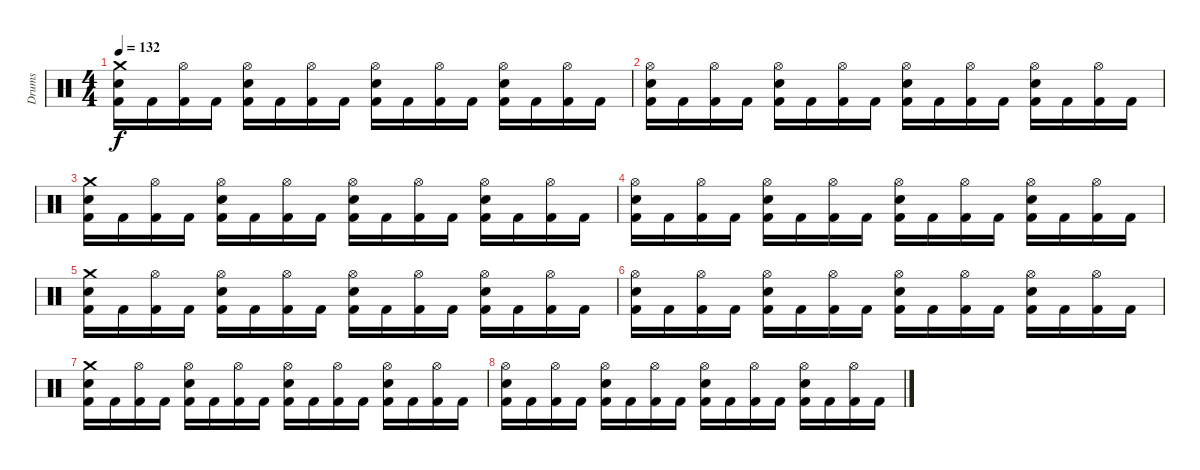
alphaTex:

\track ("Drums" "Drums") {instrument percussion}
\staff {score}
\articulation defaults
\ts (4 4)
\tempo 132
\clef neutral
\ks c
("Crash medium (hit)" "Electric Snare (hit)" "Kick (hit) 2").16{dy f} "Kick (hit) 2".16 ("Hi-Hat (open)" "Kick (hit) 2").16 "Kick (hit) 2".16 ("Hi-Hat (open)" "Electric Snare (hit)" "Kick (hit) 2").16 "Kick (hit) 2".16 ("Hi-Hat (open)" "Kick (hit) 2").16 "Kick (hit) 2".16 ("Hi-Hat (open)" "Electric Snare (hit)" "Kick (hit) 2").16 "Kick (hit) 2".16 ("Hi-Hat (open)" "Kick (hit) 2").16 "Kick (hit) 2".16 ("Hi-Hat (open)" "Electric Snare (hit)" "Kick (hit) 2").16 "Kick (hit) 2".16 ("Hi-Hat (open)" "Kick (hit) 2").16 "Kick (hit) 2".16 |
("Hi-Hat (open)" "Electric Snare (hit)" "Kick (hit) 2").16 "Kick (hit) 2".16 ("Hi-Hat (open)" "Kick (hit) 2").16 "Kick (hit) 2".16 ("Hi-Hat (open)" "Electric Snare (hit)" "Kick (hit) 2").16 "Kick (hit) 2".16 ("Hi-Hat (open)" "Kick (hit) 2").16 "Kick (hit) 2".16 ("Hi-Hat (open)" "Electric Snare (hit)" "Kick (hit) 2").16 "Kick (hit) 2".16 ("Hi-Hat (open)" "Kick (hit) 2").16 "Kick (hit) 2".16 ("Hi-Hat (open)" "Electric Snare (hit)" "Kick (hit) 2").16 "Kick (hit) 2".16 ("Hi-Hat (open)" "Kick (hit) 2").16 "Kick (hit) 2".16 |
("Crash medium (hit)" "Electric Snare (hit)" "Kick (hit) 2").16 "Kick (hit) 2".16 ("Hi-Hat (open)" "Kick (hit) 2").16 "Kick (hit) 2".16 ("Hi-Hat (open)" "Electric Snare (hit)" "Kick (hit) 2").16 "Kick (hit) 2".16 ("Hi-Hat (open)" "Kick (hit) 2").16 "Kick (hit) 2".16 ("Hi-Hat (open)" "Electric Snare (hit)" "Kick (hit) 2").16 "Kick (hit) 2".16 ("Hi-Hat (open)" "Kick (hit) 2").16 "Kick (hit) 2".16 ("Hi-Hat (open)" "Electric Snare (hit)" "Kick (hit) 2").16 "Kick (hit) 2".16 ("Hi-Hat (open)" "Kick (hit) 2").16 "Kick (hit) 2".16 |
("Hi-Hat (open)" "Electric Snare (hit)" "Kick (hit) 2").16{volume 11} "Kick (hit) 2".16 ("Hi-Hat (open)" "Kick (hit) 2").16 "Kick (hit) 2".16 ("Hi-Hat (open)" "Electric Snare (hit)" "Kick (hit) 2").16 "Kick (hit) 2".16 ("Hi-Hat (open)" "Kick (hit) 2").16 "Kick (hit) 2".16 ("Hi-Hat (open)" "Electric Snare (hit)" "Kick (hit) 2").16 "Kick (hit) 2".16 ("Hi-Hat (open)" "Kick (hit) 2").16 "Kick (hit) 2".16 ("Hi-Hat (open)" "Electric Snare (hit)" "Kick (hit) 2").16 "Kick (hit) 2".16 ("Hi-Hat (open)" "Kick (hit) 2").16 "Kick (hit) 2".16 |
("Crash medium (hit)" "Electric Snare (hit)" "Kick (hit) 2").16{volume 9} "Kick (hit) 2".16 ("Hi-Hat (open)" "Kick (hit) 2").16 "Kick (hit) 2".16 ("Hi-Hat (open)" "Electric Snare (hit)" "Kick (hit) 2").16 "Kick (hit) 2".16 ("Hi-Hat (open)" "Kick (hit) 2").16 "Kick (hit) 2".16 ("Hi-Hat (open)" "Electric Snare (hit)" "Kick (hit) 2").16 "Kick (hit) 2".16 ("Hi-Hat (open)" "Kick (hit) 2").16 "Kick (hit) 2".16 ("Hi-Hat (open)" "Electric Snare (hit)" "Kick (hit) 2").16 "Kick (hit) 2".16 ("Hi-Hat (open)" "Kick (hit) 2").16 "Kick (hit) 2".16 |
("Hi-Hat (open)" "Electric Snare (hit)" "Kick (hit) 2").16{volume 5} "Kick (hit) 2".16 ("Hi-Hat (open)" "Kick (hit) 2").16 "Kick (hit) 2".16 ("Hi-Hat (open)" "Electric Snare (hit)" "Kick (hit) 2").16 "Kick (hit) 2".16 ("Hi-Hat (open)" "Kick (hit) 2").16 "Kick (hit) 2".16 ("Hi-Hat (open)" "Electric Snare (hit)" "Kick (hit) 2").16 "Kick (hit) 2".16 ("Hi-Hat (open)" "Kick (hit) 2").16 "Kick (hit) 2".16 ("Hi-Hat (open)" "Electric Snare (hit)" "Kick (hit) 2").16 "Kick (hit) 2".16 ("Hi-Hat (open)" "Kick (hit) 2").16 "Kick (hit) 2".16 |
("Crash medium (hit)" "Electric Snare (hit)" "Kick (hit) 2").16{volume 0} "Kick (hit) 2".16 ("Hi-Hat (open)" "Kick (hit) 2").16 "Kick (hit) 2".16 ("Hi-Hat (open)" "Electric Snare (hit)" "Kick (hit) 2").16 "Kick (hit) 2".16 ("Hi-Hat (open)" "Kick (hit) 2").16 "Kick (hit) 2".16 ("Hi-Hat (open)" "Electric Snare (hit)" "Kick (hit) 2").16 "Kick (hit) 2".16 ("Hi-Hat (open)" "Kick (hit) 2").16 "Kick (hit) 2".16 ("Hi-Hat (open)" "Electric Snare (hit)" "Kick (hit) 2").16 "Kick (hit) 2".16 ("Hi-Hat (open)" "Kick (hit) 2").16 "Kick (hit) 2".16 |
("Hi-Hat (open)" "Electric Snare (hit)" "Kick (hit) 2").16 "Kick (hit) 2".16 ("Hi-Hat (open)" "Kick (hit) 2").16 "Kick (hit) 2".16 ("Hi-Hat (open)" "Electric Snare (hit)" "Kick (hit) 2").16 "Kick (hit) 2".16 ("Hi-Hat (open)" "Kick (hit) 2").16 "Kick (hit) 2".16 ("Hi-Hat (open)" "Electric Snare (hit)" "Kick (hit) 2").16 "Kick (hit) 2".16 ("Hi-Hat (open)" "Kick (hit) 2").16 "Kick (hit) 2".16 ("Hi-Hat (open)" "Electric Snare (hit)" "Kick (hit) 2").16 "Kick (hit) 2".16 ("Hi-Hat (open)" "Kick (hit) 2").16 "Kick (hit) 2".16
